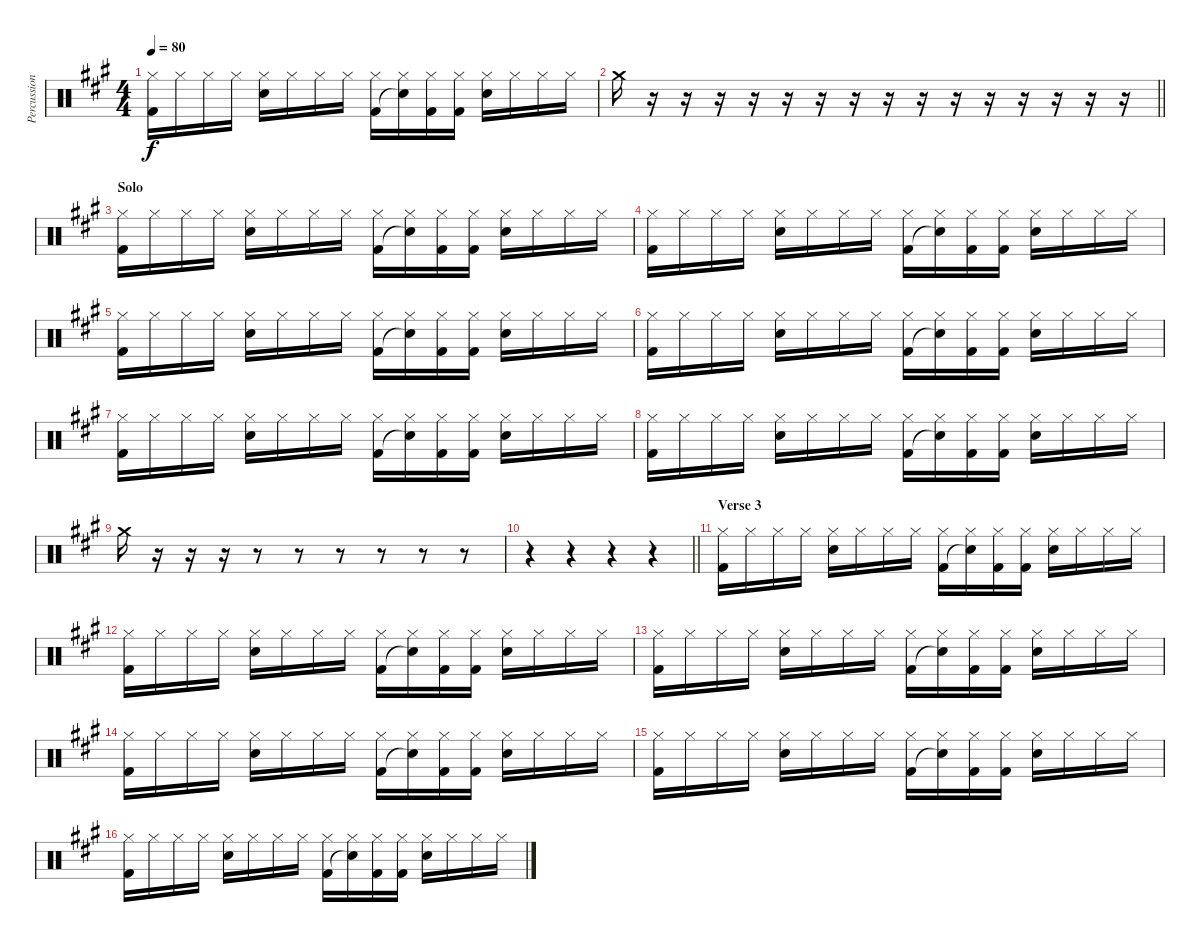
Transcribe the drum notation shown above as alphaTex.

\track ("Percussion" "Percussion") {instrument percussion}
\staff {score}
\articulation defaults
\ts (4 4)
\tempo 80
\clef neutral
\ks a
("Hi-Hat (closed)" "Kick (hit) 2").16{dy f} "Hi-Hat (closed)".16 "Hi-Hat (closed)".16 "Hi-Hat (closed)".16 ("Hi-Hat (closed)" "Snare (hit) 2").16 "Hi-Hat (closed)".16 "Hi-Hat (closed)".16 "Hi-Hat (closed)".16 ("Hi-Hat (closed)" "Kick (hit) 2").16 ("Hi-Hat (closed)" "Snare (hit)"{t}).16 ("Hi-Hat (closed)" "Kick (hit) 2").16 ("Hi-Hat (closed)" "Kick (hit) 2").16 ("Hi-Hat (closed)" "Snare (hit) 2").16 "Hi-Hat (closed)".16 "Hi-Hat (closed)".16 "Hi-Hat (closed)".16 |
\barLineRight lightlight "Crash medium (hit)".16
r.16 r.16 r.16 r.16 r.16 r.16 r.16 r.16 r.16 r.16 r.16 r.16 r.16 r.16 r.16 |
\section ("" "Solo")
("Hi-Hat (closed)" "Kick (hit) 2").16 "Hi-Hat (closed)".16 "Hi-Hat (closed)".16 "Hi-Hat (closed)".16 ("Hi-Hat (closed)" "Snare (hit) 2").16 "Hi-Hat (closed)".16 "Hi-Hat (closed)".16 "Hi-Hat (closed)".16 ("Hi-Hat (closed)" "Kick (hit) 2").16 ("Hi-Hat (closed)" "Snare (hit)"{t}).16 ("Hi-Hat (closed)" "Kick (hit) 2").16 ("Hi-Hat (closed)" "Kick (hit) 2").16 ("Hi-Hat (closed)" "Snare (hit) 2").16 "Hi-Hat (closed)".16 "Hi-Hat (closed)".16 "Hi-Hat (closed)".16 |
("Hi-Hat (closed)" "Kick (hit) 2").16 "Hi-Hat (closed)".16 "Hi-Hat (closed)".16 "Hi-Hat (closed)".16 ("Hi-Hat (closed)" "Snare (hit) 2").16 "Hi-Hat (closed)".16 "Hi-Hat (closed)".16 "Hi-Hat (closed)".16 ("Hi-Hat (closed)" "Kick (hit) 2").16 ("Hi-Hat (closed)" "Snare (hit)"{t}).16 ("Hi-Hat (closed)" "Kick (hit) 2").16 ("Hi-Hat (closed)" "Kick (hit) 2").16 ("Hi-Hat (closed)" "Snare (hit) 2").16 "Hi-Hat (closed)".16 "Hi-Hat (closed)".16 "Hi-Hat (closed)".16 |
("Hi-Hat (closed)" "Kick (hit) 2").16 "Hi-Hat (closed)".16 "Hi-Hat (closed)".16 "Hi-Hat (closed)".16 ("Hi-Hat (closed)" "Snare (hit) 2").16 "Hi-Hat (closed)".16 "Hi-Hat (closed)".16 "Hi-Hat (closed)".16 ("Hi-Hat (closed)" "Kick (hit) 2").16 ("Hi-Hat (closed)" "Snare (hit)"{t}).16 ("Hi-Hat (closed)" "Kick (hit) 2").16 ("Hi-Hat (closed)" "Kick (hit) 2").16 ("Hi-Hat (closed)" "Snare (hit) 2").16 "Hi-Hat (closed)".16 "Hi-Hat (closed)".16 "Hi-Hat (closed)".16 |
("Hi-Hat (closed)" "Kick (hit) 2").16 "Hi-Hat (closed)".16 "Hi-Hat (closed)".16 "Hi-Hat (closed)".16 ("Hi-Hat (closed)" "Snare (hit) 2").16 "Hi-Hat (closed)".16 "Hi-Hat (closed)".16 "Hi-Hat (closed)".16 ("Hi-Hat (closed)" "Kick (hit) 2").16 ("Hi-Hat (closed)" "Snare (hit)"{t}).16 ("Hi-Hat (closed)" "Kick (hit) 2").16 ("Hi-Hat (closed)" "Kick (hit) 2").16 ("Hi-Hat (closed)" "Snare (hit) 2").16 "Hi-Hat (closed)".16 "Hi-Hat (closed)".16 "Hi-Hat (closed)".16 |
("Hi-Hat (closed)" "Kick (hit) 2").16 "Hi-Hat (closed)".16 "Hi-Hat (closed)".16 "Hi-Hat (closed)".16 ("Hi-Hat (closed)" "Snare (hit) 2").16 "Hi-Hat (closed)".16 "Hi-Hat (closed)".16 "Hi-Hat (closed)".16 ("Hi-Hat (closed)" "Kick (hit) 2").16 ("Hi-Hat (closed)" "Snare (hit)"{t}).16 ("Hi-Hat (closed)" "Kick (hit) 2").16 ("Hi-Hat (closed)" "Kick (hit) 2").16 ("Hi-Hat (closed)" "Snare (hit) 2").16 "Hi-Hat (closed)".16 "Hi-Hat (closed)".16 "Hi-Hat (closed)".16 |
("Hi-Hat (closed)" "Kick (hit) 2").16 "Hi-Hat (closed)".16 "Hi-Hat (closed)".16 "Hi-Hat (closed)".16 ("Hi-Hat (closed)" "Snare (hit) 2").16 "Hi-Hat (closed)".16 "Hi-Hat (closed)".16 "Hi-Hat (closed)".16 ("Hi-Hat (closed)" "Kick (hit) 2").16 ("Hi-Hat (closed)" "Snare (hit)"{t}).16 ("Hi-Hat (closed)" "Kick (hit) 2").16 ("Hi-Hat (closed)" "Kick (hit) 2").16 ("Hi-Hat (closed)" "Snare (hit) 2").16 "Hi-Hat (closed)".16 "Hi-Hat (closed)".16 "Hi-Hat (closed)".16 |
"Crash medium (hit)".16 r.16 r.16 r.16 r.8 r.8 r.8 r.8 r.8 r.8 |
\barLineRight lightlight
r.4 r.4 r.4 r.4 |
\section ("" "Verse 3")
("Hi-Hat (closed)" "Kick (hit) 2").16 "Hi-Hat (closed)".16 "Hi-Hat (closed)".16 "Hi-Hat (closed)".16 ("Hi-Hat (closed)" "Snare (hit) 2").16 "Hi-Hat (closed)".16 "Hi-Hat (closed)".16 "Hi-Hat (closed)".16 ("Hi-Hat (closed)" "Kick (hit) 2").16 ("Hi-Hat (closed)" "Snare (hit)"{t}).16 ("Hi-Hat (closed)" "Kick (hit) 2").16 ("Hi-Hat (closed)" "Kick (hit) 2").16 ("Hi-Hat (closed)" "Snare (hit) 2").16 "Hi-Hat (closed)".16 "Hi-Hat (closed)".16 "Hi-Hat (closed)".16 |
("Hi-Hat (closed)" "Kick (hit) 2").16 "Hi-Hat (closed)".16 "Hi-Hat (closed)".16 "Hi-Hat (closed)".16 ("Hi-Hat (closed)" "Snare (hit) 2").16 "Hi-Hat (closed)".16 "Hi-Hat (closed)".16 "Hi-Hat (closed)".16 ("Hi-Hat (closed)" "Kick (hit) 2").16 ("Hi-Hat (closed)" "Snare (hit)"{t}).16 ("Hi-Hat (closed)" "Kick (hit) 2").16 ("Hi-Hat (closed)" "Kick (hit) 2").16 ("Hi-Hat (closed)" "Snare (hit) 2").16 "Hi-Hat (closed)".16 "Hi-Hat (closed)".16 "Hi-Hat (closed)".16 |
("Hi-Hat (closed)" "Kick (hit) 2").16 "Hi-Hat (closed)".16 "Hi-Hat (closed)".16 "Hi-Hat (closed)".16 ("Hi-Hat (closed)" "Snare (hit) 2").16 "Hi-Hat (closed)".16 "Hi-Hat (closed)".16 "Hi-Hat (closed)".16 ("Hi-Hat (closed)" "Kick (hit) 2").16 ("Hi-Hat (closed)" "Snare (hit)"{t}).16 ("Hi-Hat (closed)" "Kick (hit) 2").16 ("Hi-Hat (closed)" "Kick (hit) 2").16 ("Hi-Hat (closed)" "Snare (hit) 2").16 "Hi-Hat (closed)".16 "Hi-Hat (closed)".16 "Hi-Hat (closed)".16 |
("Hi-Hat (closed)" "Kick (hit) 2").16 "Hi-Hat (closed)".16 "Hi-Hat (closed)".16 "Hi-Hat (closed)".16 ("Hi-Hat (closed)" "Snare (hit) 2").16 "Hi-Hat (closed)".16 "Hi-Hat (closed)".16 "Hi-Hat (closed)".16 ("Hi-Hat (closed)" "Kick (hit) 2").16 ("Hi-Hat (closed)" "Snare (hit)"{t}).16 ("Hi-Hat (closed)" "Kick (hit) 2").16 ("Hi-Hat (closed)" "Kick (hit) 2").16 ("Hi-Hat (closed)" "Snare (hit) 2").16 "Hi-Hat (closed)".16 "Hi-Hat (closed)".16 "Hi-Hat (closed)".16 |
("Hi-Hat (closed)" "Kick (hit) 2").16 "Hi-Hat (closed)".16 "Hi-Hat (closed)".16 "Hi-Hat (closed)".16 ("Hi-Hat (closed)" "Snare (hit) 2").16 "Hi-Hat (closed)".16 "Hi-Hat (closed)".16 "Hi-Hat (closed)".16 ("Hi-Hat (closed)" "Kick (hit) 2").16 ("Hi-Hat (closed)" "Snare (hit)"{t}).16 ("Hi-Hat (closed)" "Kick (hit) 2").16 ("Hi-Hat (closed)" "Kick (hit) 2").16 ("Hi-Hat (closed)" "Snare (hit) 2").16 "Hi-Hat (closed)".16 "Hi-Hat (closed)".16 "Hi-Hat (closed)".16 |
("Hi-Hat (closed)" "Kick (hit) 2").16 "Hi-Hat (closed)".16 "Hi-Hat (closed)".16 "Hi-Hat (closed)".16 ("Hi-Hat (closed)" "Snare (hit) 2").16 "Hi-Hat (closed)".16 "Hi-Hat (closed)".16 "Hi-Hat (closed)".16 ("Hi-Hat (closed)" "Kick (hit) 2").16 ("Hi-Hat (closed)" "Snare (hit)"{t}).16 ("Hi-Hat (closed)" "Kick (hit) 2").16 ("Hi-Hat (closed)" "Kick (hit) 2").16 ("Hi-Hat (closed)" "Snare (hit) 2").16 "Hi-Hat (closed)".16 "Hi-Hat (closed)".16 "Hi-Hat (closed)".16
